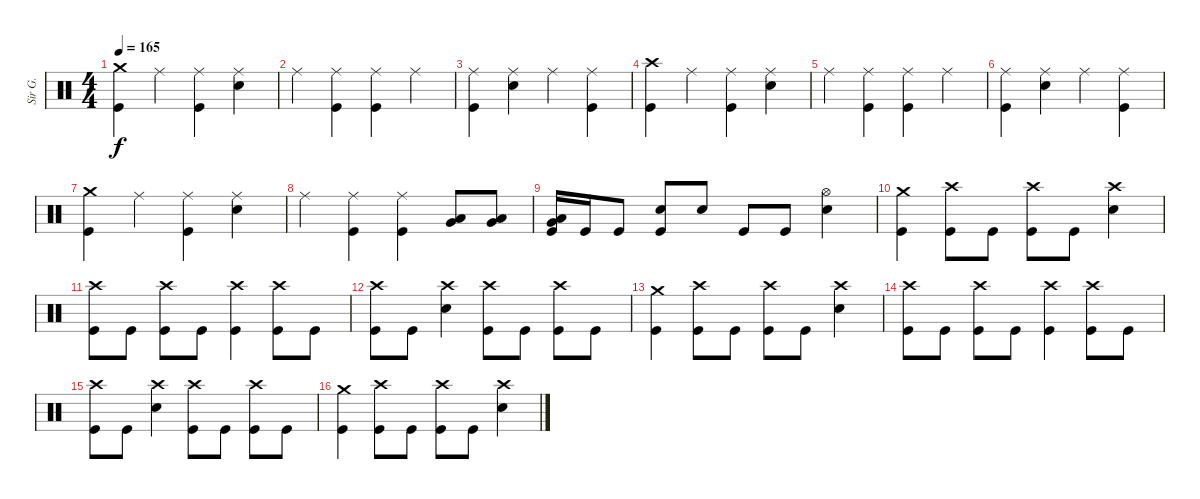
\track ("Sir G." "Sir G.") {instrument percussion}
\staff {score}
\articulation defaults
\ts (4 4)
\tempo 165
\clef neutral
\ks c
("Crash medium (hit)" "Kick (hit)").4{dy f} "Ride (middle)".4 ("Ride (middle)" "Kick (hit)").4 ("Ride (middle)" "Electric Snare (hit)").4 |
"Ride (middle)".4 ("Ride (middle)" "Kick (hit)").4 ("Ride (middle)" "Kick (hit)").4 "Ride (middle)".4 |
("Ride (middle)" "Kick (hit)").4 ("Ride (middle)" "Electric Snare (hit)").4 "Ride (middle)".4 ("Ride (middle)" "Kick (hit)").4 |
("Crash high (hit)" "Kick (hit)").4 "Ride (middle)".4 ("Ride (middle)" "Kick (hit)").4 ("Ride (middle)" "Electric Snare (hit)").4 |
"Ride (middle)".4 ("Ride (middle)" "Kick (hit)").4 ("Ride (middle)" "Kick (hit)").4 "Ride (middle)".4 |
("Ride (middle)" "Kick (hit)").4 ("Ride (middle)" "Electric Snare (hit)").4 "Ride (middle)".4 ("Ride (middle)" "Kick (hit)").4 |
("Crash medium (hit)" "Kick (hit)").4 "Ride (middle)".4 ("Ride (middle)" "Kick (hit)").4 ("Ride (middle)" "Electric Snare (hit)").4 |
"Ride (middle)".4 ("Ride (middle)" "Kick (hit)").4 ("Ride (middle)" "Kick (hit)").4 ("Low Tom (hit)" "Very Low Tom (hit)").8 ("Low Tom (hit)" "Very Low Tom (hit)").8 |
("Low Tom (hit)" "Very Low Tom (hit)" "Kick (hit)").16 "Kick (hit)".16 "Kick (hit)".8 ("Electric Snare (hit)" "Kick (hit)").8 "Electric Snare (hit)".8 "Kick (hit)".8 "Kick (hit)".8 ("Hi-Hat (open)" "Electric Snare (hit)").4 |
("Crash medium (hit)" "Kick (hit)").4 ("Crash high (hit)" "Kick (hit)").8 "Kick (hit)".8 ("Crash high (hit)" "Kick (hit)").8 "Kick (hit)".8 ("Crash high (hit)" "Electric Snare (hit)").4 |
("Crash high (hit)" "Kick (hit)").8 "Kick (hit)".8 ("Crash high (hit)" "Kick (hit)").8 "Kick (hit)".8 ("Crash high (hit)" "Kick (hit)").4 ("Crash high (hit)" "Kick (hit)").8 "Kick (hit)".8 |
("Crash high (hit)" "Kick (hit)").8 "Kick (hit)".8 ("Crash high (hit)" "Electric Snare (hit)").4 ("Crash high (hit)" "Kick (hit)").8 "Kick (hit)".8 ("Crash high (hit)" "Kick (hit)").8 "Kick (hit)".8 |
("Crash medium (hit)" "Kick (hit)").4 ("Crash high (hit)" "Kick (hit)").8 "Kick (hit)".8 ("Crash high (hit)" "Kick (hit)").8 "Kick (hit)".8 ("Crash high (hit)" "Electric Snare (hit)").4 |
("Crash high (hit)" "Kick (hit)").8 "Kick (hit)".8 ("Crash high (hit)" "Kick (hit)").8 "Kick (hit)".8 ("Crash high (hit)" "Kick (hit)").4 ("Crash high (hit)" "Kick (hit)").8 "Kick (hit)".8 |
("Crash high (hit)" "Kick (hit)").8 "Kick (hit)".8 ("Crash high (hit)" "Electric Snare (hit)").4 ("Crash high (hit)" "Kick (hit)").8 "Kick (hit)".8 ("Crash high (hit)" "Kick (hit)").8 "Kick (hit)".8 |
("Crash medium (hit)" "Kick (hit)").4 ("Crash high (hit)" "Kick (hit)").8 "Kick (hit)".8 ("Crash high (hit)" "Kick (hit)").8 "Kick (hit)".8 ("Crash high (hit)" "Electric Snare (hit)").4
